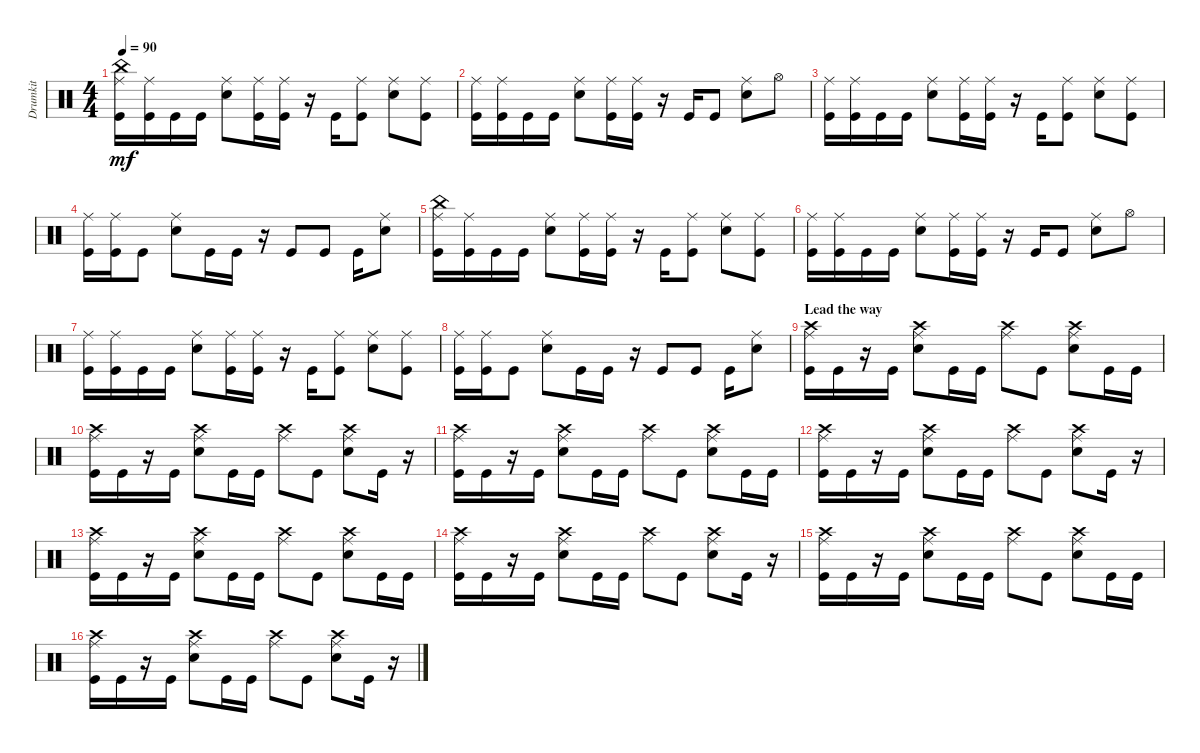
\track ("Drumkit" "Drumkit") {instrument percussion}
\staff {score}
\articulation defaults
\ts (4 4)
\tempo 90
\clef neutral
\ks c
("Kick (hit)" "Ride (middle)" "China (hit)").16{dy mf} ("Kick (hit)" "Ride (middle)").16 "Kick (hit)".16 "Kick (hit)".16 ("Snare (hit) 2" "Ride (middle)").8 ("Kick (hit)" "Ride (middle)").16 ("Kick (hit)" "Ride (middle)").16 r.16 "Kick (hit)".16 ("Kick (hit)" "Ride (middle)").8 ("Snare (hit) 2" "Ride (middle)").8 ("Kick (hit)" "Ride (middle)").8 |
("Kick (hit)" "Ride (middle)").16 ("Kick (hit)" "Ride (middle)").16 "Kick (hit)".16 "Kick (hit)".16 ("Snare (hit) 2" "Ride (middle)").8 ("Kick (hit)" "Ride (middle)").16 ("Kick (hit)" "Ride (middle)").16 r.16 "Kick (hit)".16 "Kick (hit)".8 ("Snare (hit) 2" "Ride (middle)").8 "Hi-Hat (open)".8 |
("Kick (hit)" "Ride (middle)").16 ("Kick (hit)" "Ride (middle)").16 "Kick (hit)".16 "Kick (hit)".16 ("Snare (hit) 2" "Ride (middle)").8 ("Kick (hit)" "Ride (middle)").16 ("Kick (hit)" "Ride (middle)").16 r.16 "Kick (hit)".16 ("Kick (hit)" "Ride (middle)").8 ("Snare (hit) 2" "Ride (middle)").8 ("Kick (hit)" "Ride (middle)").8 |
("Kick (hit)" "Ride (middle)").16 ("Kick (hit)" "Ride (middle)").16 "Kick (hit)".8 ("Snare (hit) 2" "Ride (middle)").8 "Kick (hit)".16 "Kick (hit)".16 r.16 "Kick (hit)".8 "Kick (hit)".8 "Kick (hit)".16 ("Snare (hit) 2" "Ride (middle)").8 |
("Kick (hit)" "Ride (middle)" "China (hit)").16 ("Kick (hit)" "Ride (middle)").16 "Kick (hit)".16 "Kick (hit)".16 ("Snare (hit) 2" "Ride (middle)").8 ("Kick (hit)" "Ride (middle)").16 ("Kick (hit)" "Ride (middle)").16 r.16 "Kick (hit)".16 ("Kick (hit)" "Ride (middle)").8 ("Snare (hit) 2" "Ride (middle)").8 ("Kick (hit)" "Ride (middle)").8 |
("Kick (hit)" "Ride (middle)").16 ("Kick (hit)" "Ride (middle)").16 "Kick (hit)".16 "Kick (hit)".16 ("Snare (hit) 2" "Ride (middle)").8 ("Kick (hit)" "Ride (middle)").16 ("Kick (hit)" "Ride (middle)").16 r.16 "Kick (hit)".16 "Kick (hit)".8 ("Snare (hit) 2" "Ride (middle)").8 "Hi-Hat (open)".8 |
("Kick (hit)" "Ride (middle)").16 ("Kick (hit)" "Ride (middle)").16 "Kick (hit)".16 "Kick (hit)".16 ("Snare (hit) 2" "Ride (middle)").8 ("Kick (hit)" "Ride (middle)").16 ("Kick (hit)" "Ride (middle)").16 r.16 "Kick (hit)".16 ("Kick (hit)" "Ride (middle)").8 ("Snare (hit) 2" "Ride (middle)").8 ("Kick (hit)" "Ride (middle)").8 |
("Kick (hit)" "Ride (middle)").16 ("Kick (hit)" "Ride (middle)").16 "Kick (hit)".8 ("Snare (hit) 2" "Ride (middle)").8 "Kick (hit)".16 "Kick (hit)".16 r.16 "Kick (hit)".8 "Kick (hit)".8 "Kick (hit)".16 ("Snare (hit) 2" "Ride (middle)").8 |
\section ("" "Lead the way")
("Kick (hit)" "Crash high (hit)" "Ride (middle)").16 "Kick (hit)".16 r.16 "Kick (hit)".16 ("Snare (hit) 2" "Crash high (hit)" "Ride (middle)").8 "Kick (hit)".16 "Kick (hit)".16 ("Crash high (hit)" "Ride (middle)").8 "Kick (hit)".8 ("Snare (hit) 2" "Crash high (hit)" "Ride (middle)").8 "Kick (hit)".16 "Kick (hit)".16 |
("Kick (hit)" "Crash high (hit)" "Ride (middle)").16 "Kick (hit)".16 r.16 "Kick (hit)".16 ("Snare (hit) 2" "Crash high (hit)" "Ride (middle)").8 "Kick (hit)".16 "Kick (hit)".16 ("Crash high (hit)" "Ride (middle)").8 "Kick (hit)".8 ("Snare (hit) 2" "Crash high (hit)" "Ride (middle)").8 "Kick (hit)".16 r.16 |
("Kick (hit)" "Crash high (hit)" "Ride (middle)").16 "Kick (hit)".16 r.16 "Kick (hit)".16 ("Snare (hit) 2" "Crash high (hit)" "Ride (middle)").8 "Kick (hit)".16 "Kick (hit)".16 ("Crash high (hit)" "Ride (middle)").8 "Kick (hit)".8 ("Snare (hit) 2" "Crash high (hit)" "Ride (middle)").8 "Kick (hit)".16 "Kick (hit)".16 |
("Kick (hit)" "Crash high (hit)" "Ride (middle)").16 "Kick (hit)".16 r.16 "Kick (hit)".16 ("Snare (hit) 2" "Crash high (hit)" "Ride (middle)").8 "Kick (hit)".16 "Kick (hit)".16 ("Crash high (hit)" "Ride (middle)").8 "Kick (hit)".8 ("Snare (hit) 2" "Crash high (hit)" "Ride (middle)").8 "Kick (hit)".16 r.16 |
("Kick (hit)" "Crash high (hit)" "Ride (middle)").16 "Kick (hit)".16 r.16 "Kick (hit)".16 ("Snare (hit) 2" "Crash high (hit)" "Ride (middle)").8 "Kick (hit)".16 "Kick (hit)".16 ("Crash high (hit)" "Ride (middle)").8 "Kick (hit)".8 ("Snare (hit) 2" "Crash high (hit)" "Ride (middle)").8 "Kick (hit)".16 "Kick (hit)".16 |
("Kick (hit)" "Crash high (hit)" "Ride (middle)").16 "Kick (hit)".16 r.16 "Kick (hit)".16 ("Snare (hit) 2" "Crash high (hit)" "Ride (middle)").8 "Kick (hit)".16 "Kick (hit)".16 ("Crash high (hit)" "Ride (middle)").8 "Kick (hit)".8 ("Snare (hit) 2" "Crash high (hit)" "Ride (middle)").8 "Kick (hit)".16 r.16 |
("Kick (hit)" "Crash high (hit)" "Ride (middle)").16 "Kick (hit)".16 r.16 "Kick (hit)".16 ("Snare (hit) 2" "Crash high (hit)" "Ride (middle)").8 "Kick (hit)".16 "Kick (hit)".16 ("Crash high (hit)" "Ride (middle)").8 "Kick (hit)".8 ("Snare (hit) 2" "Crash high (hit)" "Ride (middle)").8 "Kick (hit)".16 "Kick (hit)".16 |
("Kick (hit)" "Crash high (hit)" "Ride (middle)").16 "Kick (hit)".16 r.16 "Kick (hit)".16 ("Snare (hit) 2" "Crash high (hit)" "Ride (middle)").8 "Kick (hit)".16 "Kick (hit)".16 ("Crash high (hit)" "Ride (middle)").8 "Kick (hit)".8 ("Snare (hit) 2" "Crash high (hit)" "Ride (middle)").8 "Kick (hit)".16 r.16
